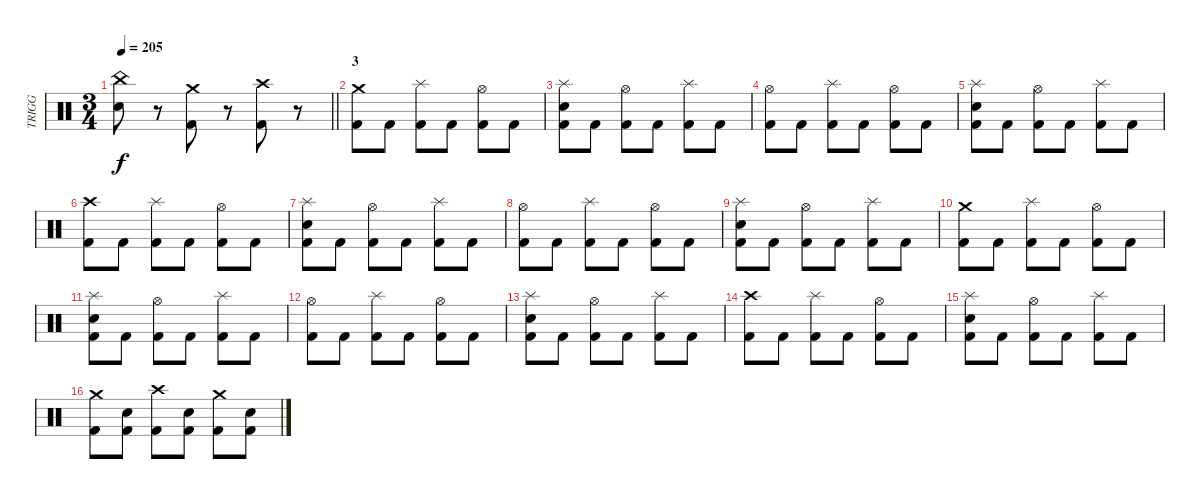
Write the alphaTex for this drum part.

\track ("TRIGG" "TRIGG") {instrument percussion}
\staff {score}
\articulation defaults
\ts (3 4)
\tempo 205
\clef neutral
\barLineRight lightlight
\ks c
("China (hit)" "Electric Snare (hit)").8{dy f} r.8 ("Crash medium (hit)" "Kick (hit) 2").8 r.8 ("Crash high (hit)" "Kick (hit) 2").8 r.8 |
\section ("" "3")
("Crash medium (hit)" "Kick (hit) 2").8 "Kick (hit) 2".8 ("Splash (hit)" "Kick (hit) 2").8 "Kick (hit) 2".8 ("Hi-Hat (open)" "Kick (hit) 2").8 "Kick (hit) 2".8 |
("Splash (hit)" "Electric Snare (hit)" "Kick (hit) 2").8 "Kick (hit) 2".8 ("Hi-Hat (open)" "Kick (hit) 2").8 "Kick (hit) 2".8 ("Splash (hit)" "Kick (hit) 2").8 "Kick (hit) 2".8 |
("Hi-Hat (open)" "Kick (hit) 2").8 "Kick (hit) 2".8 ("Splash (hit)" "Kick (hit) 2").8 "Kick (hit) 2".8 ("Hi-Hat (open)" "Kick (hit) 2").8 "Kick (hit) 2".8 |
("Splash (hit)" "Electric Snare (hit)" "Kick (hit) 2").8 "Kick (hit) 2".8 ("Hi-Hat (open)" "Kick (hit) 2").8 "Kick (hit) 2".8 ("Splash (hit)" "Kick (hit) 2").8 "Kick (hit) 2".8 |
("Crash high (hit)" "Kick (hit) 2").8 "Kick (hit) 2".8 ("Splash (hit)" "Kick (hit) 2").8 "Kick (hit) 2".8 ("Hi-Hat (open)" "Kick (hit) 2").8 "Kick (hit) 2".8 |
("Splash (hit)" "Electric Snare (hit)" "Kick (hit) 2").8 "Kick (hit) 2".8 ("Hi-Hat (open)" "Kick (hit) 2").8 "Kick (hit) 2".8 ("Splash (hit)" "Kick (hit) 2").8 "Kick (hit) 2".8 |
("Hi-Hat (open)" "Kick (hit) 2").8 "Kick (hit) 2".8 ("Splash (hit)" "Kick (hit) 2").8 "Kick (hit) 2".8 ("Hi-Hat (open)" "Kick (hit) 2").8 "Kick (hit) 2".8 |
("Splash (hit)" "Electric Snare (hit)" "Kick (hit) 2").8 "Kick (hit) 2".8 ("Hi-Hat (open)" "Kick (hit) 2").8 "Kick (hit) 2".8 ("Splash (hit)" "Kick (hit) 2").8 "Kick (hit) 2".8 |
("Crash medium (hit)" "Kick (hit) 2").8 "Kick (hit) 2".8 ("Splash (hit)" "Kick (hit) 2").8 "Kick (hit) 2".8 ("Hi-Hat (open)" "Kick (hit) 2").8 "Kick (hit) 2".8 |
("Splash (hit)" "Electric Snare (hit)" "Kick (hit) 2").8 "Kick (hit) 2".8 ("Hi-Hat (open)" "Kick (hit) 2").8 "Kick (hit) 2".8 ("Splash (hit)" "Kick (hit) 2").8 "Kick (hit) 2".8 |
("Hi-Hat (open)" "Kick (hit) 2").8 "Kick (hit) 2".8 ("Splash (hit)" "Kick (hit) 2").8 "Kick (hit) 2".8 ("Hi-Hat (open)" "Kick (hit) 2").8 "Kick (hit) 2".8 |
("Splash (hit)" "Electric Snare (hit)" "Kick (hit) 2").8 "Kick (hit) 2".8 ("Hi-Hat (open)" "Kick (hit) 2").8 "Kick (hit) 2".8 ("Splash (hit)" "Kick (hit) 2").8 "Kick (hit) 2".8 |
("Crash high (hit)" "Kick (hit) 2").8 "Kick (hit) 2".8 ("Splash (hit)" "Kick (hit) 2").8 "Kick (hit) 2".8 ("Hi-Hat (open)" "Kick (hit) 2").8 "Kick (hit) 2".8 |
("Splash (hit)" "Electric Snare (hit)" "Kick (hit) 2").8 "Kick (hit) 2".8 ("Hi-Hat (open)" "Kick (hit) 2").8 "Kick (hit) 2".8 ("Splash (hit)" "Kick (hit) 2").8 "Kick (hit) 2".8 |
("Crash medium (hit)" "Kick (hit) 2").8 ("Electric Snare (hit)" "Kick (hit) 2").8 ("Crash high (hit)" "Kick (hit) 2").8 ("Electric Snare (hit)" "Kick (hit) 2").8 ("Crash medium (hit)" "Kick (hit) 2").8 ("Electric Snare (hit)" "Kick (hit) 2").8
